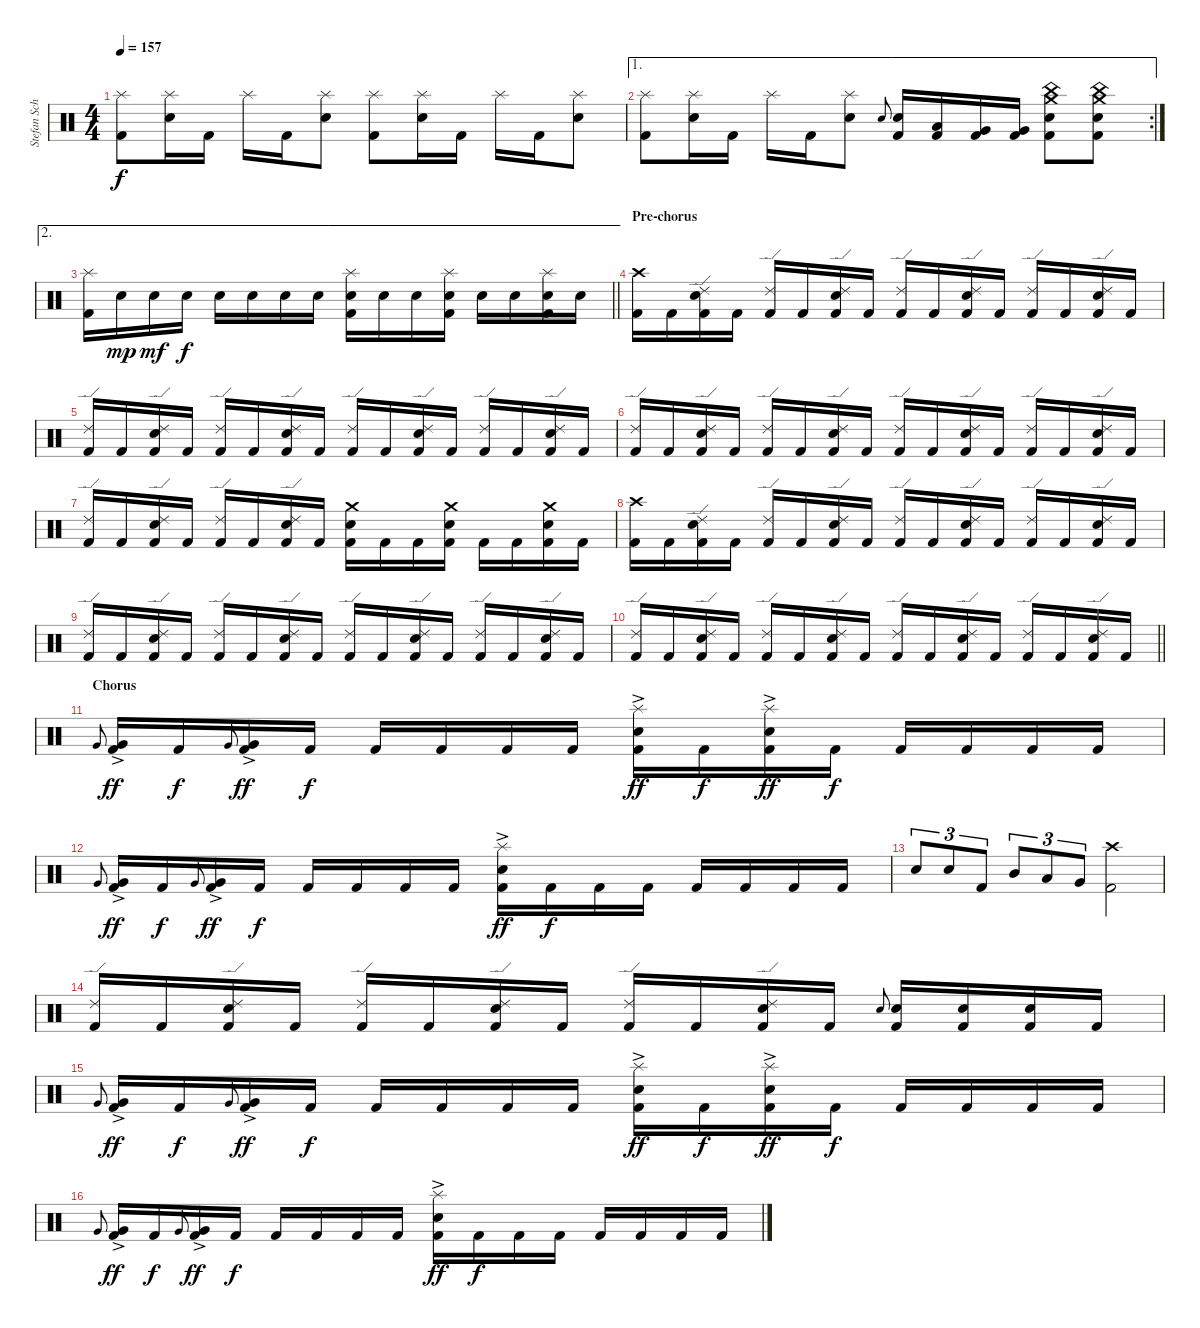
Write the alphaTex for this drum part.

\track ("Stefan Schwarzmann" "Stefan Sch") {instrument percussion}
\staff {score}
\articulation defaults
\ts (4 4)
\tempo 157
\clef neutral
\ks c
("Splash (hit)" "Kick (hit) 2").8{dy f} ("Splash (hit)" "Snare (hit) 2").16 "Kick (hit) 2".16 "Splash (hit)".16 "Kick (hit) 2".16 ("Splash (hit)" "Snare (hit) 2").8 ("Splash (hit)" "Kick (hit) 2").8 ("Splash (hit)" "Snare (hit) 2").16 "Kick (hit) 2".16 "Splash (hit)".16 "Kick (hit) 2".16 ("Splash (hit)" "Snare (hit) 2").8 |
\ae 1
\rc 2
("Splash (hit)" "Kick (hit) 2").8 ("Splash (hit)" "Snare (hit) 2").16 "Kick (hit) 2".16 "Splash (hit)".16 "Kick (hit) 2".16 ("Splash (hit)" "Snare (hit) 2").8 "Snare (hit) 2".8{gr onbeat} ("Snare (hit) 2" "Kick (hit) 2").16 ("Low Tom (hit)" "Kick (hit) 2").16 ("Very Low Tom (hit)" "Kick (hit) 2").16 ("Very Low Tom (hit)" "Kick (hit) 2").16 ("Crash medium (hit)" "China (hit)" "Snare (hit) 2" "Kick (hit) 2").8 ("Crash medium (hit)" "China (hit)" "Snare (hit) 2" "Kick (hit) 2").8 |
\ae 2
\barLineRight lightlight
("Splash (hit)" "Kick (hit) 2").16 "Snare (hit) 2".16{dy mp} "Snare (hit) 2".16{dy mf} "Snare (hit) 2".16{dy f} "Snare (hit) 2".16 "Snare (hit) 2".16 "Snare (hit) 2".16 "Snare (hit) 2".16 ("Splash (hit)" "Snare (hit) 2" "Kick (hit) 2").16 "Snare (hit) 2".16 "Snare (hit) 2".16 ("Splash (hit)" "Snare (hit) 2" "Kick (hit) 2").16 "Snare (hit) 2".16 "Snare (hit) 2".16 ("Splash (hit)" "Snare (hit) 2" "Kick (hit) 2").16 "Snare (hit) 2".16 |
\section ("" "Pre-chorus")
("Crash high (hit)" "Kick (hit) 2").16 "Kick (hit) 2".16 ("Ride (edge) 2" "Snare (hit) 2" "Kick (hit) 2").16 "Kick (hit) 2".16 ("Ride (edge) 2" "Kick (hit) 2").16 "Kick (hit) 2".16 ("Ride (edge) 2" "Snare (hit) 2" "Kick (hit) 2").16 "Kick (hit) 2".16 ("Ride (edge) 2" "Kick (hit) 2").16 "Kick (hit) 2".16 ("Ride (edge) 2" "Snare (hit) 2" "Kick (hit) 2").16 "Kick (hit) 2".16 ("Ride (edge) 2" "Kick (hit) 2").16 "Kick (hit) 2".16 ("Ride (edge) 2" "Snare (hit) 2" "Kick (hit) 2").16 "Kick (hit) 2".16 |
("Ride (edge) 2" "Kick (hit) 2").16 "Kick (hit) 2".16 ("Ride (edge) 2" "Snare (hit) 2" "Kick (hit) 2").16 "Kick (hit) 2".16 ("Ride (edge) 2" "Kick (hit) 2").16 "Kick (hit) 2".16 ("Ride (edge) 2" "Snare (hit) 2" "Kick (hit) 2").16 "Kick (hit) 2".16 ("Ride (edge) 2" "Kick (hit) 2").16 "Kick (hit) 2".16 ("Ride (edge) 2" "Snare (hit) 2" "Kick (hit) 2").16 "Kick (hit) 2".16 ("Ride (edge) 2" "Kick (hit) 2").16 "Kick (hit) 2".16 ("Ride (edge) 2" "Snare (hit) 2" "Kick (hit) 2").16 "Kick (hit) 2".16 |
("Ride (edge) 2" "Kick (hit) 2").16 "Kick (hit) 2".16 ("Ride (edge) 2" "Snare (hit) 2" "Kick (hit) 2").16 "Kick (hit) 2".16 ("Ride (edge) 2" "Kick (hit) 2").16 "Kick (hit) 2".16 ("Ride (edge) 2" "Snare (hit) 2" "Kick (hit) 2").16 "Kick (hit) 2".16 ("Ride (edge) 2" "Kick (hit) 2").16 "Kick (hit) 2".16 ("Ride (edge) 2" "Snare (hit) 2" "Kick (hit) 2").16 "Kick (hit) 2".16 ("Ride (edge) 2" "Kick (hit) 2").16 "Kick (hit) 2".16 ("Ride (edge) 2" "Snare (hit) 2" "Kick (hit) 2").16 "Kick (hit) 2".16 |
("Ride (edge) 2" "Kick (hit) 2").16 "Kick (hit) 2".16 ("Ride (edge) 2" "Snare (hit) 2" "Kick (hit) 2").16 "Kick (hit) 2".16 ("Ride (edge) 2" "Kick (hit) 2").16 "Kick (hit) 2".16 ("Ride (edge) 2" "Snare (hit) 2" "Kick (hit) 2").16 "Kick (hit) 2".16 ("Crash medium (hit)" "Snare (hit) 2" "Kick (hit) 2").16 "Kick (hit) 2".16 "Kick (hit) 2".16 ("Crash medium (hit)" "Snare (hit) 2" "Kick (hit) 2").16 "Kick (hit) 2".16 "Kick (hit) 2".16 ("Crash medium (hit)" "Snare (hit) 2" "Kick (hit) 2").16 "Kick (hit) 2".16 |
("Crash high (hit)" "Kick (hit) 2").16 "Kick (hit) 2".16 ("Ride (edge) 2" "Snare (hit) 2" "Kick (hit) 2").16 "Kick (hit) 2".16 ("Ride (edge) 2" "Kick (hit) 2").16 "Kick (hit) 2".16 ("Ride (edge) 2" "Snare (hit) 2" "Kick (hit) 2").16 "Kick (hit) 2".16 ("Ride (edge) 2" "Kick (hit) 2").16 "Kick (hit) 2".16 ("Ride (edge) 2" "Snare (hit) 2" "Kick (hit) 2").16 "Kick (hit) 2".16 ("Ride (edge) 2" "Kick (hit) 2").16 "Kick (hit) 2".16 ("Ride (edge) 2" "Snare (hit) 2" "Kick (hit) 2").16 "Kick (hit) 2".16 |
("Ride (edge) 2" "Kick (hit) 2").16 "Kick (hit) 2".16 ("Ride (edge) 2" "Snare (hit) 2" "Kick (hit) 2").16 "Kick (hit) 2".16 ("Ride (edge) 2" "Kick (hit) 2").16 "Kick (hit) 2".16 ("Ride (edge) 2" "Snare (hit) 2" "Kick (hit) 2").16 "Kick (hit) 2".16 ("Ride (edge) 2" "Kick (hit) 2").16 "Kick (hit) 2".16 ("Ride (edge) 2" "Snare (hit) 2" "Kick (hit) 2").16 "Kick (hit) 2".16 ("Ride (edge) 2" "Kick (hit) 2").16 "Kick (hit) 2".16 ("Ride (edge) 2" "Snare (hit) 2" "Kick (hit) 2").16 "Kick (hit) 2".16 |
\barLineRight lightlight
("Ride (edge) 2" "Kick (hit) 2").16 "Kick (hit) 2".16 ("Ride (edge) 2" "Snare (hit) 2" "Kick (hit) 2").16 "Kick (hit) 2".16 ("Ride (edge) 2" "Kick (hit) 2").16 "Kick (hit) 2".16 ("Ride (edge) 2" "Snare (hit) 2" "Kick (hit) 2").16 "Kick (hit) 2".16 ("Ride (edge) 2" "Kick (hit) 2").16 "Kick (hit) 2".16 ("Ride (edge) 2" "Snare (hit) 2" "Kick (hit) 2").16 "Kick (hit) 2".16 ("Ride (edge) 2" "Kick (hit) 2").16 "Kick (hit) 2".16 ("Ride (edge) 2" "Snare (hit) 2" "Kick (hit) 2").16 "Kick (hit) 2".16 |
\section ("" "Chorus")
"Very Low Tom (hit)".8{gr onbeat} ("Very Low Tom (hit)"{ac} "Kick (hit) 2").16{dy ff} "Kick (hit) 2".16{dy f} "Very Low Tom (hit)".8{gr onbeat} ("Very Low Tom (hit)"{ac} "Kick (hit) 2").16{dy ff} "Kick (hit) 2".16{dy f} "Kick (hit) 2".16 "Kick (hit) 2".16 "Kick (hit) 2".16 "Kick (hit) 2".16 ("Splash (hit)"{ac} "Snare (hit) 2" "Kick (hit) 2").16{dy ff} "Kick (hit) 2".16{dy f} ("Splash (hit)"{ac} "Snare (hit) 2" "Kick (hit) 2").16{dy ff} "Kick (hit) 2".16{dy f} "Kick (hit) 2".16 "Kick (hit) 2".16 "Kick (hit) 2".16 "Kick (hit) 2".16 |
"Very Low Tom (hit)".8{gr onbeat} ("Very Low Tom (hit)"{ac} "Kick (hit) 2").16{dy ff} "Kick (hit) 2".16{dy f} "Very Low Tom (hit)".8{gr onbeat} ("Very Low Tom (hit)"{ac} "Kick (hit) 2").16{dy ff} "Kick (hit) 2".16{dy f} "Kick (hit) 2".16 "Kick (hit) 2".16 "Kick (hit) 2".16 "Kick (hit) 2".16 ("Splash (hit)"{ac} "Snare (hit) 2" "Kick (hit) 2").16{dy ff} "Kick (hit) 2".16{dy f} "Kick (hit) 2".16 "Kick (hit) 2".16 "Kick (hit) 2".16 "Kick (hit) 2".16 "Kick (hit) 2".16 "Kick (hit) 2".16 |
"Snare (hit) 2".8{tu (3 2)} "Snare (hit) 2".8{tu (3 2)} "Kick (hit) 2".8{tu (3 2)} "Mid Tom (hit)".8{tu (3 2)} "Low Tom (hit)".8{tu (3 2)} "Very Low Tom (hit)".8{tu (3 2)} ("Crash high (hit)" "Kick (hit) 2").2 |
("Ride (edge) 2" "Kick (hit) 2").16 "Kick (hit) 2".16 ("Ride (edge) 2" "Snare (hit) 2" "Kick (hit) 2").16 "Kick (hit) 2".16 ("Ride (edge) 2" "Kick (hit) 2").16 "Kick (hit) 2".16 ("Ride (edge) 2" "Snare (hit) 2" "Kick (hit) 2").16 "Kick (hit) 2".16 ("Ride (edge) 2" "Kick (hit) 2").16 "Kick (hit) 2".16 ("Ride (edge) 2" "Snare (hit) 2" "Kick (hit) 2").16 "Kick (hit) 2".16 "Snare (hit) 2".8{gr onbeat} ("Snare (hit) 2" "Kick (hit) 2").16 ("Snare (hit) 2" "Kick (hit) 2").16 ("Snare (hit) 2" "Kick (hit) 2").16 "Kick (hit) 2".16 |
"Very Low Tom (hit)".8{gr onbeat} ("Very Low Tom (hit)"{ac} "Kick (hit) 2").16{dy ff} "Kick (hit) 2".16{dy f} "Very Low Tom (hit)".8{gr onbeat} ("Very Low Tom (hit)"{ac} "Kick (hit) 2").16{dy ff} "Kick (hit) 2".16{dy f} "Kick (hit) 2".16 "Kick (hit) 2".16 "Kick (hit) 2".16 "Kick (hit) 2".16 ("Splash (hit)"{ac} "Snare (hit) 2" "Kick (hit) 2").16{dy ff} "Kick (hit) 2".16{dy f} ("Splash (hit)"{ac} "Snare (hit) 2" "Kick (hit) 2").16{dy ff} "Kick (hit) 2".16{dy f} "Kick (hit) 2".16 "Kick (hit) 2".16 "Kick (hit) 2".16 "Kick (hit) 2".16 |
"Very Low Tom (hit)".8{gr onbeat} ("Very Low Tom (hit)"{ac} "Kick (hit) 2").16{dy ff} "Kick (hit) 2".16{dy f} "Very Low Tom (hit)".8{gr onbeat} ("Very Low Tom (hit)"{ac} "Kick (hit) 2").16{dy ff} "Kick (hit) 2".16{dy f} "Kick (hit) 2".16 "Kick (hit) 2".16 "Kick (hit) 2".16 "Kick (hit) 2".16 ("Splash (hit)"{ac} "Snare (hit) 2" "Kick (hit) 2").16{dy ff} "Kick (hit) 2".16{dy f} "Kick (hit) 2".16 "Kick (hit) 2".16 "Kick (hit) 2".16 "Kick (hit) 2".16 "Kick (hit) 2".16 "Kick (hit) 2".16
